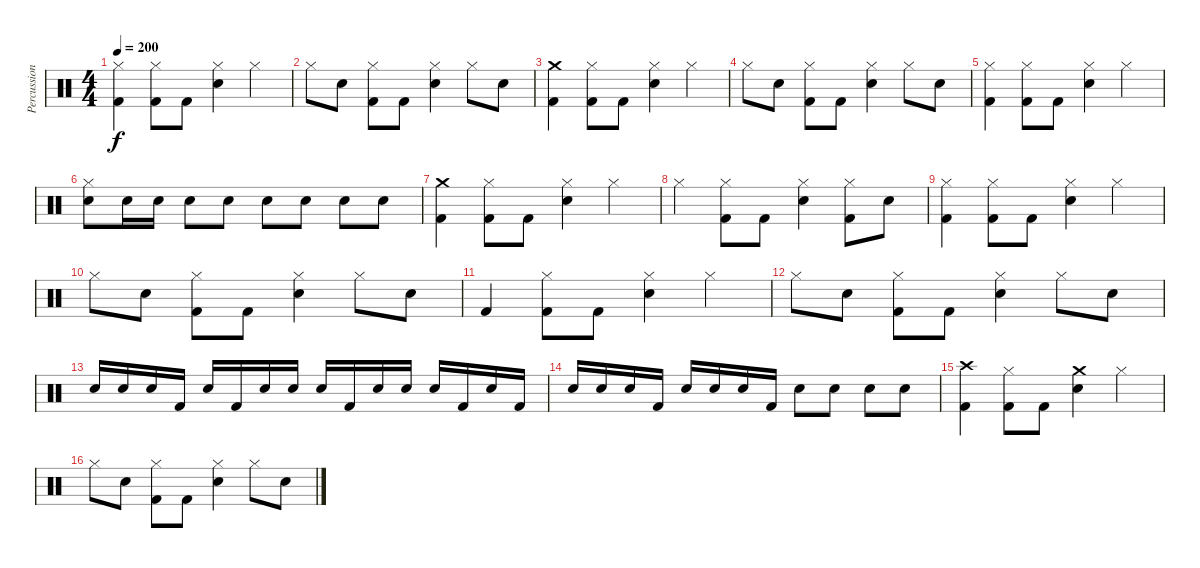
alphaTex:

\track ("Percussion" "Percussion") {instrument percussion}
\staff {score}
\articulation defaults
\ts (4 4)
\tempo 200
\clef neutral
\ks c
("Hi-Hat (closed)" "Kick (hit) 2").4{dy f} ("Hi-Hat (closed)" "Kick (hit) 2").8 "Kick (hit) 2".8 ("Hi-Hat (closed)" "Electric Snare (hit)").4 "Hi-Hat (closed)".4 |
"Hi-Hat (closed)".8 "Electric Snare (hit)".8 ("Hi-Hat (closed)" "Kick (hit) 2").8 "Kick (hit) 2".8 ("Hi-Hat (closed)" "Electric Snare (hit)").4 "Hi-Hat (closed)".8 "Electric Snare (hit)".8 |
("Crash medium (hit)" "Kick (hit) 2").4 ("Hi-Hat (closed)" "Kick (hit) 2").8 "Kick (hit) 2".8 ("Hi-Hat (closed)" "Electric Snare (hit)").4 "Hi-Hat (closed)".4 |
"Hi-Hat (closed)".8 "Electric Snare (hit)".8 ("Hi-Hat (closed)" "Kick (hit) 2").8 "Kick (hit) 2".8 ("Hi-Hat (closed)" "Electric Snare (hit)").4 "Hi-Hat (closed)".8 "Electric Snare (hit)".8 |
("Hi-Hat (closed)" "Kick (hit) 2").4 ("Hi-Hat (closed)" "Kick (hit) 2").8 "Kick (hit) 2".8 ("Hi-Hat (closed)" "Electric Snare (hit)").4 "Hi-Hat (closed)".4 |
("Hi-Hat (closed)" "Electric Snare (hit)").8 "Electric Snare (hit)".16 "Electric Snare (hit)".16 "Electric Snare (hit)".8 "Electric Snare (hit)".8 "Electric Snare (hit)".8 "Electric Snare (hit)".8 "Electric Snare (hit)".8 "Electric Snare (hit)".8 |
("Crash medium (hit)" "Kick (hit) 2").4 ("Hi-Hat (closed)" "Kick (hit) 2").8 "Kick (hit) 2".8 ("Hi-Hat (closed)" "Electric Snare (hit)").4 "Hi-Hat (closed)".4 |
"Hi-Hat (closed)".4 ("Hi-Hat (closed)" "Kick (hit) 2").8 "Kick (hit) 2".8 ("Hi-Hat (closed)" "Electric Snare (hit)").4 ("Hi-Hat (closed)" "Kick (hit) 2").8 "Electric Snare (hit)".8 |
("Hi-Hat (closed)" "Kick (hit) 2").4 ("Hi-Hat (closed)" "Kick (hit) 2").8 "Kick (hit) 2".8 ("Hi-Hat (closed)" "Electric Snare (hit)").4 "Hi-Hat (closed)".4 |
"Hi-Hat (closed)".8 "Electric Snare (hit)".8 ("Hi-Hat (closed)" "Kick (hit) 2").8 "Kick (hit) 2".8 ("Hi-Hat (closed)" "Electric Snare (hit)").4 "Hi-Hat (closed)".8 "Electric Snare (hit)".8 |
"Kick (hit) 2".4 ("Hi-Hat (closed)" "Kick (hit) 2").8 "Kick (hit) 2".8 ("Hi-Hat (closed)" "Electric Snare (hit)").4 "Hi-Hat (closed)".4 |
"Hi-Hat (closed)".8 "Electric Snare (hit)".8 ("Hi-Hat (closed)" "Kick (hit) 2").8 "Kick (hit) 2".8 ("Hi-Hat (closed)" "Electric Snare (hit)").4 "Hi-Hat (closed)".8 "Electric Snare (hit)".8 |
"Electric Snare (hit)".16 "Electric Snare (hit)".16 "Electric Snare (hit)".16 "Kick (hit) 2".16 "Electric Snare (hit)".16 "Kick (hit) 2".16 "Electric Snare (hit)".16 "Electric Snare (hit)".16 "Electric Snare (hit)".16 "Kick (hit) 2".16 "Electric Snare (hit)".16 "Electric Snare (hit)".16 "Electric Snare (hit)".16 "Kick (hit) 2".16 "Electric Snare (hit)".16 "Kick (hit) 2".16 |
"Electric Snare (hit)".16 "Electric Snare (hit)".16 "Electric Snare (hit)".16 "Kick (hit) 2".16 "Electric Snare (hit)".16 "Electric Snare (hit)".16 "Electric Snare (hit)".16 "Kick (hit) 2".16 "Electric Snare (hit)".8 "Electric Snare (hit)".8 "Electric Snare (hit)".8 "Electric Snare (hit)".8 |
("Crash high (hit)" "Kick (hit) 2").4 ("Hi-Hat (closed)" "Kick (hit) 2").8 "Kick (hit) 2".8 ("Crash medium (hit)" "Electric Snare (hit)").4 "Hi-Hat (closed)".4 |
"Hi-Hat (closed)".8 "Electric Snare (hit)".8 ("Hi-Hat (closed)" "Kick (hit) 2").8 "Kick (hit) 2".8 ("Hi-Hat (closed)" "Electric Snare (hit)").4 "Hi-Hat (closed)".8 "Electric Snare (hit)".8
